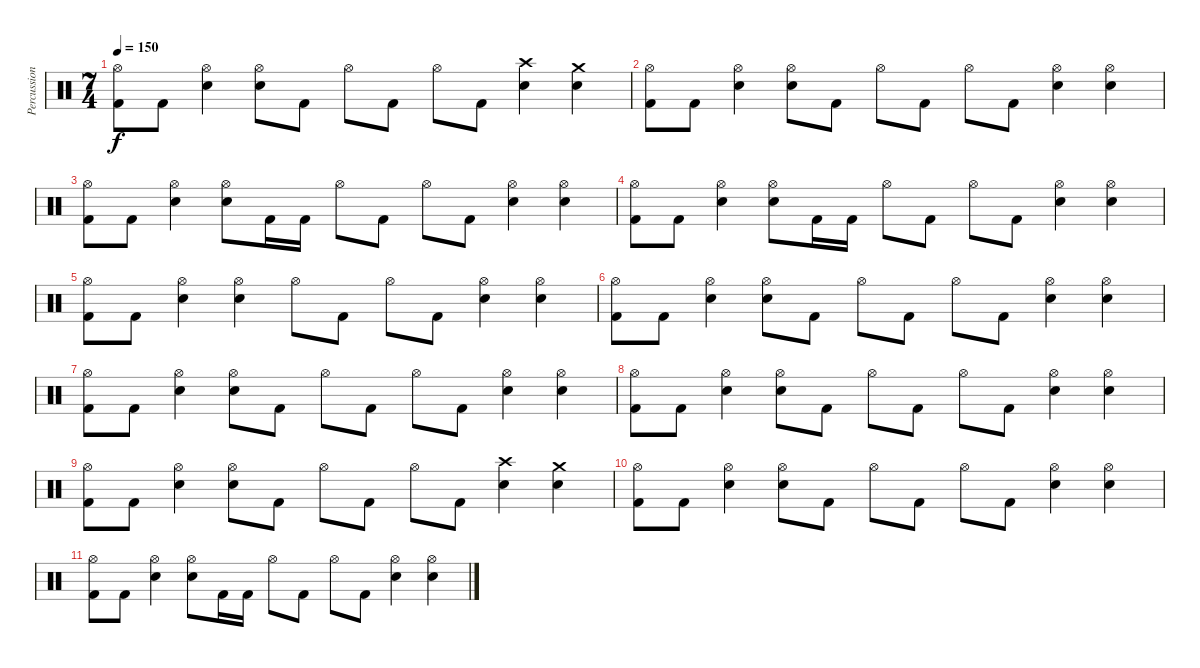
\track ("Percussion" "Percussion") {instrument percussion}
\staff {score}
\articulation defaults
\ts (7 4)
\tempo 150
\clef neutral
\ks c
("Kick (hit) 2" "Hi-Hat (open)").8{dy f} "Kick (hit) 2".8 ("Snare (hit) 2" "Hi-Hat (open)").4 ("Snare (hit) 2" "Hi-Hat (open)").8 "Kick (hit) 2".8 "Hi-Hat (open)".8 "Kick (hit) 2".8 "Hi-Hat (open)".8 "Kick (hit) 2".8 ("Snare (hit) 2" "Crash high (hit)").4 ("Snare (hit) 2" "Crash medium (hit)").4 |
("Kick (hit) 2" "Hi-Hat (open)").8 "Kick (hit) 2".8 ("Snare (hit) 2" "Hi-Hat (open)").4 ("Snare (hit) 2" "Hi-Hat (open)").8 "Kick (hit) 2".8 "Hi-Hat (open)".8 "Kick (hit) 2".8 "Hi-Hat (open)".8 "Kick (hit) 2".8 ("Snare (hit) 2" "Hi-Hat (open)").4 ("Snare (hit) 2" "Hi-Hat (open)").4 |
("Kick (hit) 2" "Hi-Hat (open)").8 "Kick (hit) 2".8 ("Snare (hit) 2" "Hi-Hat (open)").4 ("Snare (hit) 2" "Hi-Hat (open)").8 "Kick (hit) 2".16 "Kick (hit) 2".16 "Hi-Hat (open)".8 "Kick (hit) 2".8 "Hi-Hat (open)".8 "Kick (hit) 2".8 ("Snare (hit) 2" "Hi-Hat (open)").4 ("Snare (hit) 2" "Hi-Hat (open)").4 |
("Kick (hit) 2" "Hi-Hat (open)").8 "Kick (hit) 2".8 ("Snare (hit) 2" "Hi-Hat (open)").4 ("Snare (hit) 2" "Hi-Hat (open)").8 "Kick (hit) 2".16 "Kick (hit) 2".16 "Hi-Hat (open)".8 "Kick (hit) 2".8 "Hi-Hat (open)".8 "Kick (hit) 2".8 ("Snare (hit) 2" "Hi-Hat (open)").4 ("Snare (hit) 2" "Hi-Hat (open)").4 |
("Kick (hit) 2" "Hi-Hat (open)").8 "Kick (hit) 2".8 ("Snare (hit) 2" "Hi-Hat (open)").4 ("Snare (hit) 2" "Hi-Hat (open)").4 "Hi-Hat (open)".8 "Kick (hit) 2".8 "Hi-Hat (open)".8 "Kick (hit) 2".8 ("Snare (hit) 2" "Hi-Hat (open)").4 ("Snare (hit) 2" "Hi-Hat (open)").4 |
("Kick (hit) 2" "Hi-Hat (open)").8 "Kick (hit) 2".8 ("Snare (hit) 2" "Hi-Hat (open)").4 ("Snare (hit) 2" "Hi-Hat (open)").8 "Kick (hit) 2".8 "Hi-Hat (open)".8 "Kick (hit) 2".8 "Hi-Hat (open)".8 "Kick (hit) 2".8 ("Snare (hit) 2" "Hi-Hat (open)").4 ("Snare (hit) 2" "Hi-Hat (open)").4 |
("Kick (hit) 2" "Hi-Hat (open)").8 "Kick (hit) 2".8 ("Snare (hit) 2" "Hi-Hat (open)").4 ("Snare (hit) 2" "Hi-Hat (open)").8 "Kick (hit) 2".8 "Hi-Hat (open)".8 "Kick (hit) 2".8 "Hi-Hat (open)".8 "Kick (hit) 2".8 ("Snare (hit) 2" "Hi-Hat (open)").4 ("Snare (hit) 2" "Hi-Hat (open)").4 |
("Kick (hit) 2" "Hi-Hat (open)").8 "Kick (hit) 2".8 ("Snare (hit) 2" "Hi-Hat (open)").4 ("Snare (hit) 2" "Hi-Hat (open)").8 "Kick (hit) 2".8 "Hi-Hat (open)".8 "Kick (hit) 2".8 "Hi-Hat (open)".8 "Kick (hit) 2".8 ("Snare (hit) 2" "Hi-Hat (open)").4 ("Snare (hit) 2" "Hi-Hat (open)").4 |
("Kick (hit) 2" "Hi-Hat (open)").8 "Kick (hit) 2".8 ("Snare (hit) 2" "Hi-Hat (open)").4 ("Snare (hit) 2" "Hi-Hat (open)").8 "Kick (hit) 2".8 "Hi-Hat (open)".8 "Kick (hit) 2".8 "Hi-Hat (open)".8 "Kick (hit) 2".8 ("Snare (hit) 2" "Crash high (hit)").4 ("Snare (hit) 2" "Crash medium (hit)").4 |
("Kick (hit) 2" "Hi-Hat (open)").8 "Kick (hit) 2".8 ("Snare (hit) 2" "Hi-Hat (open)").4 ("Snare (hit) 2" "Hi-Hat (open)").8 "Kick (hit) 2".8 "Hi-Hat (open)".8 "Kick (hit) 2".8 "Hi-Hat (open)".8 "Kick (hit) 2".8 ("Snare (hit) 2" "Hi-Hat (open)").4 ("Snare (hit) 2" "Hi-Hat (open)").4 |
("Kick (hit) 2" "Hi-Hat (open)").8 "Kick (hit) 2".8 ("Snare (hit) 2" "Hi-Hat (open)").4 ("Snare (hit) 2" "Hi-Hat (open)").8 "Kick (hit) 2".16 "Kick (hit) 2".16 "Hi-Hat (open)".8 "Kick (hit) 2".8 "Hi-Hat (open)".8 "Kick (hit) 2".8 ("Snare (hit) 2" "Hi-Hat (open)").4 ("Snare (hit) 2" "Hi-Hat (open)").4
